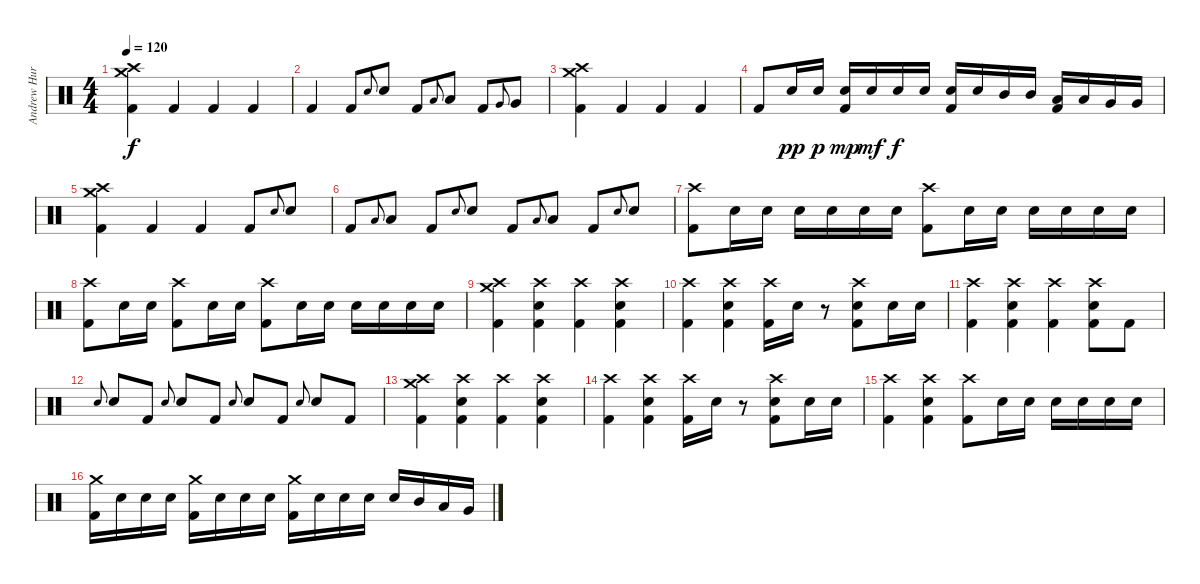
\track ("Andrew Hurley (Drums)" "Andrew Hur") {instrument percussion}
\staff {score}
\articulation defaults
\ts (4 4)
\tempo 120
\clef neutral
\ks c
("Crash high (hit)" "Crash medium (hit)" "Kick (hit) 2").4{dy f} "Kick (hit) 2".4 "Kick (hit) 2".4 "Kick (hit) 2".4 |
"Kick (hit) 2".4 "Kick (hit) 2".8 "Snare (hit) 2".8{gr onbeat} "Snare (hit) 2".8 "Kick (hit) 2".8 "Low Tom (hit)".8{gr onbeat} "Low Tom (hit)".8 "Kick (hit) 2".8 "Very Low Tom (hit)".8{gr onbeat} "Very Low Tom (hit)".8 |
("Crash high (hit)" "Crash medium (hit)" "Kick (hit) 2").4 "Kick (hit) 2".4 "Kick (hit) 2".4 "Kick (hit) 2".4 |
"Kick (hit) 2".8 "Snare (hit) 2".16{dy pp} "Snare (hit) 2".16{dy p} ("Snare (hit) 2" "Kick (hit) 2").16{dy mp} "Snare (hit) 2".16{dy mf} "Snare (hit) 2".16{dy f} "Snare (hit) 2".16 ("Snare (hit) 2" "Kick (hit) 2").16 "Snare (hit) 2".16 "Mid Tom (hit)".16 "Mid Tom (hit)".16 ("Low Tom (hit)" "Kick (hit) 2").16 "Low Tom (hit)".16 "Very Low Tom (hit)".16 "Very Low Tom (hit)".16 |
("Crash high (hit)" "Crash medium (hit)" "Kick (hit) 2").4 "Kick (hit) 2".4 "Kick (hit) 2".4 "Kick (hit) 2".8 "Snare (hit) 2".8{gr onbeat} "Snare (hit) 2".8 |
"Kick (hit) 2".8 "Low Tom (hit)".8{gr onbeat} "Low Tom (hit)".8 "Kick (hit) 2".8 "Snare (hit) 2".8{gr onbeat} "Snare (hit) 2".8 "Kick (hit) 2".8 "Low Tom (hit)".8{gr onbeat} "Low Tom (hit)".8 "Kick (hit) 2".8 "Snare (hit) 2".8{gr onbeat} "Snare (hit) 2".8 |
("Crash high (hit)" "Kick (hit) 2").8 "Snare (hit) 2".16 "Snare (hit) 2".16 "Snare (hit) 2".16 "Snare (hit) 2".16 "Snare (hit) 2".16 "Snare (hit) 2".16 ("Crash high (hit)" "Kick (hit) 2").8 "Snare (hit) 2".16 "Snare (hit) 2".16 "Snare (hit) 2".16 "Snare (hit) 2".16 "Snare (hit) 2".16 "Snare (hit) 2".16 |
("Crash high (hit)" "Kick (hit) 2").8 "Snare (hit) 2".16 "Snare (hit) 2".16 ("Crash high (hit)" "Kick (hit) 2").8 "Snare (hit) 2".16 "Snare (hit) 2".16 ("Crash high (hit)" "Kick (hit) 2").8 "Snare (hit) 2".16 "Snare (hit) 2".16 "Snare (hit) 2".16 "Snare (hit) 2".16 "Snare (hit) 2".16 "Snare (hit) 2".16 |
("Crash high (hit)" "Crash medium (hit)" "Kick (hit) 2").4 ("Crash high (hit)" "Snare (hit) 2" "Kick (hit) 2").4 ("Crash high (hit)" "Kick (hit) 2").4 ("Crash high (hit)" "Snare (hit) 2" "Kick (hit) 2").4 |
("Crash high (hit)" "Kick (hit) 2").4 ("Crash high (hit)" "Snare (hit) 2" "Kick (hit) 2").4 ("Crash high (hit)" "Kick (hit) 2").16 "Snare (hit) 2".16 r.8 ("Crash high (hit)" "Snare (hit) 2" "Kick (hit) 2").8 "Snare (hit) 2".16 "Snare (hit) 2".16 |
("Crash high (hit)" "Kick (hit) 2").4 ("Crash high (hit)" "Snare (hit) 2" "Kick (hit) 2").4 ("Crash high (hit)" "Kick (hit) 2").4 ("Crash high (hit)" "Snare (hit) 2" "Kick (hit) 2").8 "Kick (hit) 2".8 |
"Snare (hit) 2".8{gr onbeat} "Snare (hit) 2".8 "Kick (hit) 2".8 "Snare (hit) 2".8{gr onbeat} "Snare (hit) 2".8 "Kick (hit) 2".8 "Snare (hit) 2".8{gr onbeat} "Snare (hit) 2".8 "Kick (hit) 2".8 "Snare (hit) 2".8{gr onbeat} "Snare (hit) 2".8 "Kick (hit) 2".8 |
("Crash high (hit)" "Crash medium (hit)" "Kick (hit) 2").4 ("Crash high (hit)" "Snare (hit) 2" "Kick (hit) 2").4 ("Crash high (hit)" "Kick (hit) 2").4 ("Crash high (hit)" "Snare (hit) 2" "Kick (hit) 2").4 |
("Crash high (hit)" "Kick (hit) 2").4 ("Crash high (hit)" "Snare (hit) 2" "Kick (hit) 2").4 ("Crash high (hit)" "Kick (hit) 2").16 "Snare (hit) 2".16 r.8 ("Crash high (hit)" "Snare (hit) 2" "Kick (hit) 2").8 "Snare (hit) 2".16 "Snare (hit) 2".16 |
("Crash high (hit)" "Kick (hit) 2").4 ("Crash high (hit)" "Snare (hit) 2" "Kick (hit) 2").4 ("Crash high (hit)" "Kick (hit) 2").8 "Snare (hit) 2".16 "Snare (hit) 2".16 "Snare (hit) 2".16 "Snare (hit) 2".16 "Snare (hit) 2".16 "Snare (hit) 2".16 |
("Crash medium (hit)" "Kick (hit) 2").16 "Snare (hit) 2".16 "Snare (hit) 2".16 "Snare (hit) 2".16 ("Crash medium (hit)" "Kick (hit) 2").16 "Snare (hit) 2".16 "Snare (hit) 2".16 "Snare (hit) 2".16 ("Crash medium (hit)" "Kick (hit) 2").16 "Snare (hit) 2".16 "Snare (hit) 2".16 "Snare (hit) 2".16 "Snare (hit) 2".16 "Mid Tom (hit)".16 "Low Tom (hit)".16 "Very Low Tom (hit)".16
